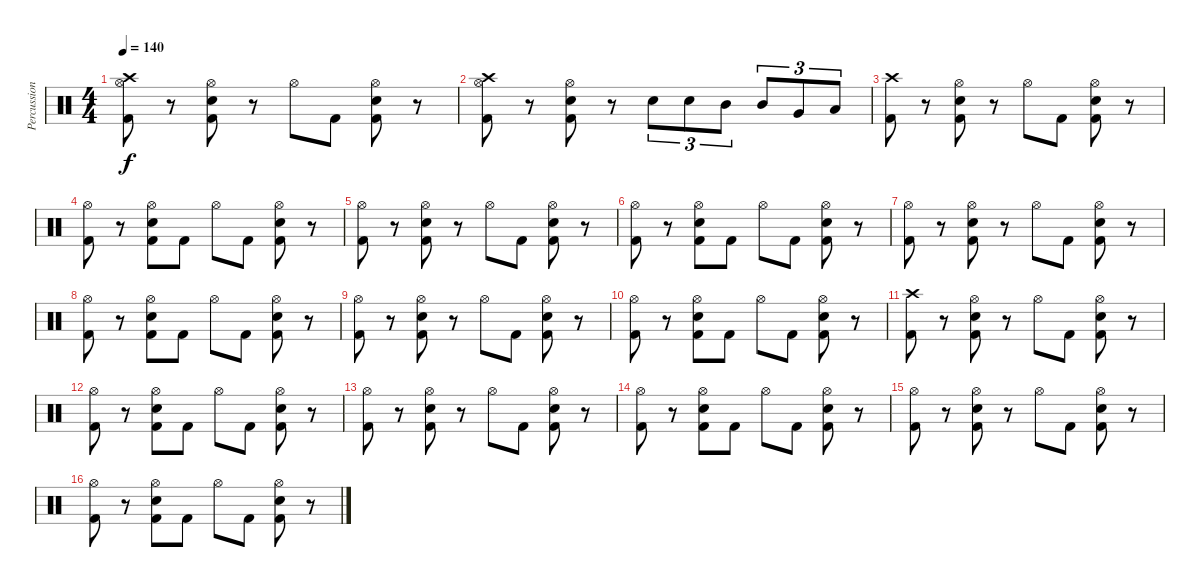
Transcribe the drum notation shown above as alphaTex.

\track ("Percussion" "Percussion") {instrument percussion}
\staff {score}
\articulation defaults
\ts (4 4)
\tempo 140
\clef neutral
\ks c
("Crash high (hit)" "Hi-Hat (open)" "Kick (hit) 2").8{dy f} r.8 ("Snare (hit) 2" "Hi-Hat (open)" "Kick (hit) 2").8 r.8 "Hi-Hat (open)".8 "Kick (hit) 2".8 ("Snare (hit) 2" "Hi-Hat (open)" "Kick (hit) 2").8 r.8 |
("Crash high (hit)" "Hi-Hat (open)" "Kick (hit) 2").8 r.8 ("Snare (hit) 2" "Hi-Hat (open)" "Kick (hit) 2").8 r.8 "Snare (hit) 2".8{tu (3 2)} "Snare (hit) 2".8{tu (3 2)} "Mid Tom (hit)".8{tu (3 2)} "Mid Tom (hit)".8{tu (3 2)} "Very Low Tom (hit)".8{tu (3 2)} "Low Floor Tom (hit)".8{tu (3 2)} |
("Crash high (hit)" "Kick (hit) 2").8 r.8 ("Snare (hit) 2" "Hi-Hat (open)" "Kick (hit) 2").8 r.8 "Hi-Hat (open)".8 "Kick (hit) 2".8 ("Snare (hit) 2" "Hi-Hat (open)" "Kick (hit) 2").8 r.8 |
("Hi-Hat (open)" "Kick (hit) 2").8 r.8 ("Snare (hit) 2" "Hi-Hat (open)" "Kick (hit) 2").8 "Kick (hit) 2".8 "Hi-Hat (open)".8 "Kick (hit) 2".8 ("Snare (hit) 2" "Hi-Hat (open)" "Kick (hit) 2").8 r.8 |
("Hi-Hat (open)" "Kick (hit) 2").8 r.8 ("Snare (hit) 2" "Hi-Hat (open)" "Kick (hit) 2").8 r.8 "Hi-Hat (open)".8 "Kick (hit) 2".8 ("Snare (hit) 2" "Hi-Hat (open)" "Kick (hit) 2").8 r.8 |
("Hi-Hat (open)" "Kick (hit) 2").8 r.8 ("Snare (hit) 2" "Hi-Hat (open)" "Kick (hit) 2").8 "Kick (hit) 2".8 "Hi-Hat (open)".8 "Kick (hit) 2".8 ("Snare (hit) 2" "Hi-Hat (open)" "Kick (hit) 2").8 r.8 |
("Hi-Hat (open)" "Kick (hit) 2").8 r.8 ("Snare (hit) 2" "Hi-Hat (open)" "Kick (hit) 2").8 r.8 "Hi-Hat (open)".8 "Kick (hit) 2".8 ("Snare (hit) 2" "Hi-Hat (open)" "Kick (hit) 2").8 r.8 |
("Hi-Hat (open)" "Kick (hit) 2").8 r.8 ("Snare (hit) 2" "Hi-Hat (open)" "Kick (hit) 2").8 "Kick (hit) 2".8 "Hi-Hat (open)".8 "Kick (hit) 2".8 ("Snare (hit) 2" "Hi-Hat (open)" "Kick (hit) 2").8 r.8 |
("Hi-Hat (open)" "Kick (hit) 2").8 r.8 ("Snare (hit) 2" "Hi-Hat (open)" "Kick (hit) 2").8 r.8 "Hi-Hat (open)".8 "Kick (hit) 2".8 ("Snare (hit) 2" "Hi-Hat (open)" "Kick (hit) 2").8 r.8 |
("Hi-Hat (open)" "Kick (hit) 2").8 r.8 ("Snare (hit) 2" "Hi-Hat (open)" "Kick (hit) 2").8 "Kick (hit) 2".8 "Hi-Hat (open)".8 "Kick (hit) 2".8 ("Snare (hit) 2" "Hi-Hat (open)" "Kick (hit) 2").8 r.8 |
("Crash high (hit)" "Kick (hit) 2").8 r.8 ("Snare (hit) 2" "Hi-Hat (open)" "Kick (hit) 2").8 r.8 "Hi-Hat (open)".8 "Kick (hit) 2".8 ("Snare (hit) 2" "Hi-Hat (open)" "Kick (hit) 2").8 r.8 |
("Hi-Hat (open)" "Kick (hit) 2").8 r.8 ("Snare (hit) 2" "Hi-Hat (open)" "Kick (hit) 2").8 "Kick (hit) 2".8 "Hi-Hat (open)".8 "Kick (hit) 2".8 ("Snare (hit) 2" "Hi-Hat (open)" "Kick (hit) 2").8 r.8 |
("Hi-Hat (open)" "Kick (hit) 2").8 r.8 ("Snare (hit) 2" "Hi-Hat (open)" "Kick (hit) 2").8 r.8 "Hi-Hat (open)".8 "Kick (hit) 2".8 ("Snare (hit) 2" "Hi-Hat (open)" "Kick (hit) 2").8 r.8 |
("Hi-Hat (open)" "Kick (hit) 2").8 r.8 ("Snare (hit) 2" "Hi-Hat (open)" "Kick (hit) 2").8 "Kick (hit) 2".8 "Hi-Hat (open)".8 "Kick (hit) 2".8 ("Snare (hit) 2" "Hi-Hat (open)" "Kick (hit) 2").8 r.8 |
("Hi-Hat (open)" "Kick (hit) 2").8 r.8 ("Snare (hit) 2" "Hi-Hat (open)" "Kick (hit) 2").8 r.8 "Hi-Hat (open)".8 "Kick (hit) 2".8 ("Snare (hit) 2" "Hi-Hat (open)" "Kick (hit) 2").8 r.8 |
("Hi-Hat (open)" "Kick (hit) 2").8 r.8 ("Snare (hit) 2" "Hi-Hat (open)" "Kick (hit) 2").8 "Kick (hit) 2".8 "Hi-Hat (open)".8 "Kick (hit) 2".8 ("Snare (hit) 2" "Hi-Hat (open)" "Kick (hit) 2").8 r.8
